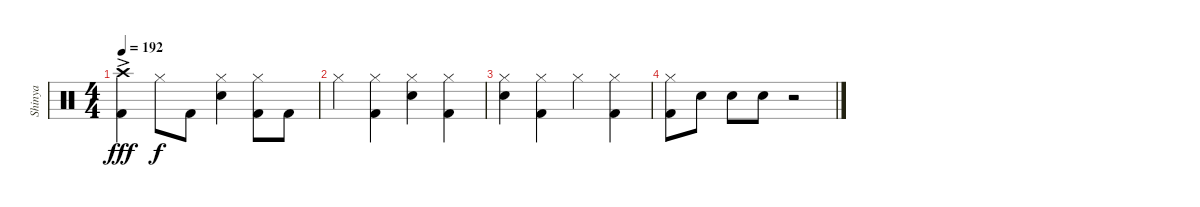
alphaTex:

\track ("Shinya" "Shinya") {instrument percussion}
\staff {score}
\articulation defaults
\ts (4 4)
\tempo 192
\clef neutral
\ks c
("Crash high (hit)"{ac} "Kick (hit) 2").4{dy fff} "Hi-Hat (closed)".8{dy f} "Kick (hit) 2".8 ("Hi-Hat (closed)" "Snare (hit) 2").4 ("Hi-Hat (closed)" "Kick (hit) 2").8 "Kick (hit) 2".8 |
"Hi-Hat (closed)".4 ("Hi-Hat (closed)" "Kick (hit) 2").4 ("Hi-Hat (closed)" "Snare (hit) 2").4 ("Hi-Hat (closed)" "Kick (hit) 2").4 |
("Hi-Hat (closed)" "Snare (hit) 2").4 ("Hi-Hat (closed)" "Kick (hit) 2").4 "Hi-Hat (closed)".4 ("Hi-Hat (closed)" "Kick (hit) 2").4 |
("Hi-Hat (closed)" "Kick (hit) 2").8 "Snare (hit) 2".8 "Snare (hit) 2".8 "Snare (hit) 2".8 r.2
